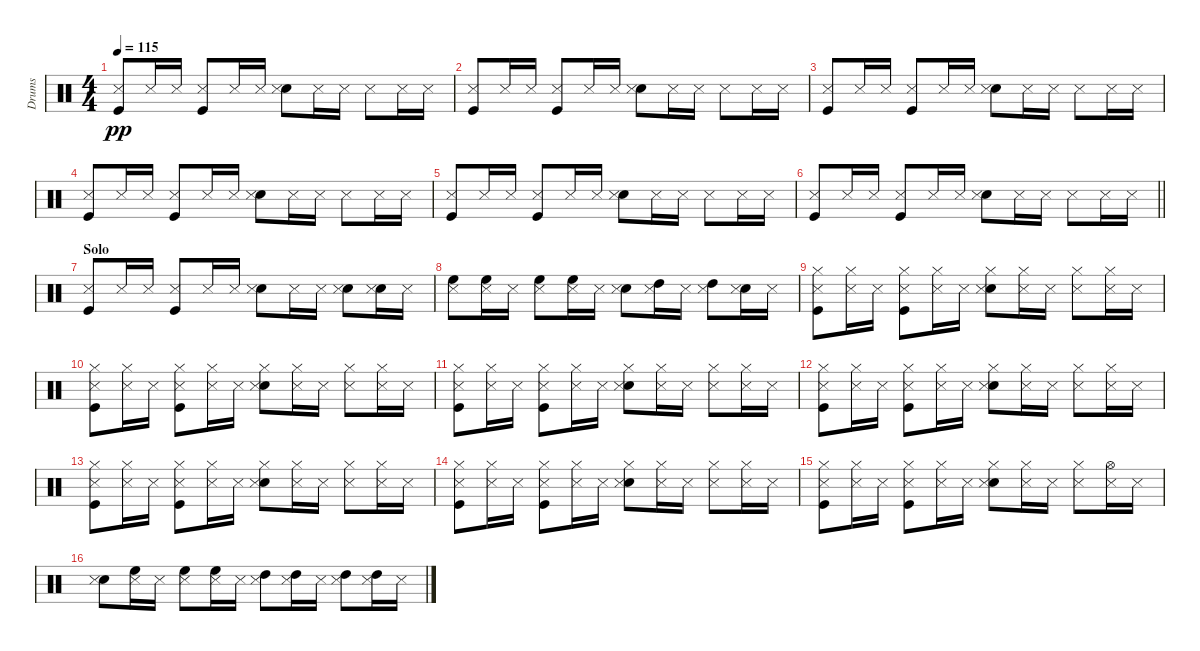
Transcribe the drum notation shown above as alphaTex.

\track ("Drums" "Drums") {instrument percussion}
\staff {score}
\articulation defaults
\ts (4 4)
\tempo 115
\clef neutral
\ks c
("Snare (side stick) 3" "Kick (hit)").8{dy pp} "Snare (side stick) 3".16 "Snare (side stick) 3".16 ("Snare (side stick) 3" "Kick (hit)").8 "Snare (side stick) 3".16 "Snare (side stick) 3".16 ("Snare (hit) 2" "Snare (side stick) 3").8 "Snare (side stick) 3".16 "Snare (side stick) 3".16 "Snare (side stick) 3".8 "Snare (side stick) 3".16 "Snare (side stick) 3".16 |
("Snare (side stick) 3" "Kick (hit)").8 "Snare (side stick) 3".16 "Snare (side stick) 3".16 ("Snare (side stick) 3" "Kick (hit)").8 "Snare (side stick) 3".16 "Snare (side stick) 3".16 ("Snare (hit) 2" "Snare (side stick) 3").8 "Snare (side stick) 3".16 "Snare (side stick) 3".16 "Snare (side stick) 3".8 "Snare (side stick) 3".16 "Snare (side stick) 3".16 |
("Snare (side stick) 3" "Kick (hit)").8 "Snare (side stick) 3".16 "Snare (side stick) 3".16 ("Snare (side stick) 3" "Kick (hit)").8 "Snare (side stick) 3".16 "Snare (side stick) 3".16 ("Snare (hit) 2" "Snare (side stick) 3").8 "Snare (side stick) 3".16 "Snare (side stick) 3".16 "Snare (side stick) 3".8 "Snare (side stick) 3".16 "Snare (side stick) 3".16 |
("Snare (side stick) 3" "Kick (hit)").8 "Snare (side stick) 3".16 "Snare (side stick) 3".16 ("Snare (side stick) 3" "Kick (hit)").8 "Snare (side stick) 3".16 "Snare (side stick) 3".16 ("Snare (hit) 2" "Snare (side stick) 3").8 "Snare (side stick) 3".16 "Snare (side stick) 3".16 "Snare (side stick) 3".8 "Snare (side stick) 3".16 "Snare (side stick) 3".16 |
("Snare (side stick) 3" "Kick (hit)").8 "Snare (side stick) 3".16 "Snare (side stick) 3".16 ("Snare (side stick) 3" "Kick (hit)").8 "Snare (side stick) 3".16 "Snare (side stick) 3".16 ("Snare (hit) 2" "Snare (side stick) 3").8 "Snare (side stick) 3".16 "Snare (side stick) 3".16 "Snare (side stick) 3".8 "Snare (side stick) 3".16 "Snare (side stick) 3".16 |
\barLineRight lightlight
("Snare (side stick) 3" "Kick (hit)").8 "Snare (side stick) 3".16 "Snare (side stick) 3".16 ("Snare (side stick) 3" "Kick (hit)").8 "Snare (side stick) 3".16 "Snare (side stick) 3".16 ("Snare (hit) 2" "Snare (side stick) 3").8 "Snare (side stick) 3".16 "Snare (side stick) 3".16 "Snare (side stick) 3".8 "Snare (side stick) 3".16 "Snare (side stick) 3".16 |
\section ("" "Solo")
("Snare (side stick) 3" "Kick (hit)").8 "Snare (side stick) 3".16 "Snare (side stick) 3".16 ("Snare (side stick) 3" "Kick (hit)").8 "Snare (side stick) 3".16 "Snare (side stick) 3".16 ("Snare (hit) 2" "Snare (side stick) 3").8 "Snare (side stick) 3".16 "Snare (side stick) 3".16 ("Snare (hit) 2" "Snare (side stick) 3").8 ("Snare (hit) 2" "Snare (side stick) 3").16 "Snare (side stick) 3".16 |
("High Floor Tom (hit)" "Snare (side stick) 3").8 ("High Floor Tom (hit)" "Snare (side stick) 3").16 "Snare (side stick) 3".16 ("High Floor Tom (hit)" "Snare (side stick) 3").8 ("High Floor Tom (hit)" "Snare (side stick) 3").16 "Snare (side stick) 3".16 ("Snare (hit) 2" "Snare (side stick) 3").8 ("High Tom (hit)" "Snare (side stick) 3").16 "Snare (side stick) 3".16 ("High Tom (hit)" "Snare (side stick) 3").8 ("Snare (hit) 2" "Snare (side stick) 3").16 "Snare (side stick) 3".16 |
("Hi-Hat (closed)" "Snare (side stick) 3" "Kick (hit)").8 ("Hi-Hat (closed)" "Snare (side stick) 3").16 "Snare (side stick) 3".16 ("Hi-Hat (closed)" "Snare (side stick) 3" "Kick (hit)").8 ("Hi-Hat (closed)" "Snare (side stick) 3").16 "Snare (side stick) 3".16 ("Hi-Hat (closed)" "Snare (hit) 2" "Snare (side stick) 3").8 ("Hi-Hat (closed)" "Snare (side stick) 3").16 "Snare (side stick) 3".16 ("Hi-Hat (closed)" "Snare (side stick) 3").8 ("Hi-Hat (closed)" "Snare (side stick) 3").16 "Snare (side stick) 3".16 |
("Hi-Hat (closed)" "Snare (side stick) 3" "Kick (hit)").8 ("Hi-Hat (closed)" "Snare (side stick) 3").16 "Snare (side stick) 3".16 ("Hi-Hat (closed)" "Snare (side stick) 3" "Kick (hit)").8 ("Hi-Hat (closed)" "Snare (side stick) 3").16 "Snare (side stick) 3".16 ("Hi-Hat (closed)" "Snare (hit) 2" "Snare (side stick) 3").8 ("Hi-Hat (closed)" "Snare (side stick) 3").16 "Snare (side stick) 3".16 ("Hi-Hat (closed)" "Snare (side stick) 3").8 ("Hi-Hat (closed)" "Snare (side stick) 3").16 "Snare (side stick) 3".16 |
("Hi-Hat (closed)" "Snare (side stick) 3" "Kick (hit)").8 ("Hi-Hat (closed)" "Snare (side stick) 3").16 "Snare (side stick) 3".16 ("Hi-Hat (closed)" "Snare (side stick) 3" "Kick (hit)").8 ("Hi-Hat (closed)" "Snare (side stick) 3").16 "Snare (side stick) 3".16 ("Hi-Hat (closed)" "Snare (hit) 2" "Snare (side stick) 3").8 ("Hi-Hat (closed)" "Snare (side stick) 3").16 "Snare (side stick) 3".16 ("Hi-Hat (closed)" "Snare (side stick) 3").8 ("Hi-Hat (closed)" "Snare (side stick) 3").16 "Snare (side stick) 3".16 |
("Hi-Hat (closed)" "Snare (side stick) 3" "Kick (hit)").8 ("Hi-Hat (closed)" "Snare (side stick) 3").16 "Snare (side stick) 3".16 ("Hi-Hat (closed)" "Snare (side stick) 3" "Kick (hit)").8 ("Hi-Hat (closed)" "Snare (side stick) 3").16 "Snare (side stick) 3".16 ("Hi-Hat (closed)" "Snare (hit) 2" "Snare (side stick) 3").8 ("Hi-Hat (closed)" "Snare (side stick) 3").16 "Snare (side stick) 3".16 ("Hi-Hat (closed)" "Snare (side stick) 3").8 ("Hi-Hat (closed)" "Snare (side stick) 3").16 "Snare (side stick) 3".16 |
("Hi-Hat (closed)" "Snare (side stick) 3" "Kick (hit)").8 ("Hi-Hat (closed)" "Snare (side stick) 3").16 "Snare (side stick) 3".16 ("Hi-Hat (closed)" "Snare (side stick) 3" "Kick (hit)").8 ("Hi-Hat (closed)" "Snare (side stick) 3").16 "Snare (side stick) 3".16 ("Hi-Hat (closed)" "Snare (hit) 2" "Snare (side stick) 3").8 ("Hi-Hat (closed)" "Snare (side stick) 3").16 "Snare (side stick) 3".16 ("Hi-Hat (closed)" "Snare (side stick) 3").8 ("Hi-Hat (closed)" "Snare (side stick) 3").16 "Snare (side stick) 3".16 |
("Hi-Hat (closed)" "Snare (side stick) 3" "Kick (hit)").8 ("Hi-Hat (closed)" "Snare (side stick) 3").16 "Snare (side stick) 3".16 ("Hi-Hat (closed)" "Snare (side stick) 3" "Kick (hit)").8 ("Hi-Hat (closed)" "Snare (side stick) 3").16 "Snare (side stick) 3".16 ("Hi-Hat (closed)" "Snare (hit) 2" "Snare (side stick) 3").8 ("Hi-Hat (closed)" "Snare (side stick) 3").16 "Snare (side stick) 3".16 ("Hi-Hat (closed)" "Snare (side stick) 3").8 ("Hi-Hat (closed)" "Snare (side stick) 3").16 "Snare (side stick) 3".16 |
("Hi-Hat (closed)" "Snare (side stick) 3" "Kick (hit)").8 ("Hi-Hat (closed)" "Snare (side stick) 3").16 "Snare (side stick) 3".16 ("Hi-Hat (closed)" "Snare (side stick) 3" "Kick (hit)").8 ("Hi-Hat (closed)" "Snare (side stick) 3").16 "Snare (side stick) 3".16 ("Hi-Hat (closed)" "Snare (hit) 2" "Snare (side stick) 3").8 ("Hi-Hat (closed)" "Snare (side stick) 3").16 "Snare (side stick) 3".16 ("Hi-Hat (closed)" "Snare (side stick) 3").8 ("Hi-Hat (open)" "Snare (side stick) 3").16 "Snare (side stick) 3".16 |
("Snare (hit) 2" "Snare (side stick) 3").8 ("High Floor Tom (hit)" "Snare (side stick) 3").16 "Snare (side stick) 3".16 ("High Floor Tom (hit)" "Snare (side stick) 3").8 ("High Floor Tom (hit)" "Snare (side stick) 3").16 "Snare (side stick) 3".16 ("High Tom (hit)" "Snare (side stick) 3").8 ("High Tom (hit)" "Snare (side stick) 3").16 "Snare (side stick) 3".16 ("High Tom (hit)" "Snare (side stick) 3").8 ("High Tom (hit)" "Snare (side stick) 3").16 "Snare (side stick) 3".16
